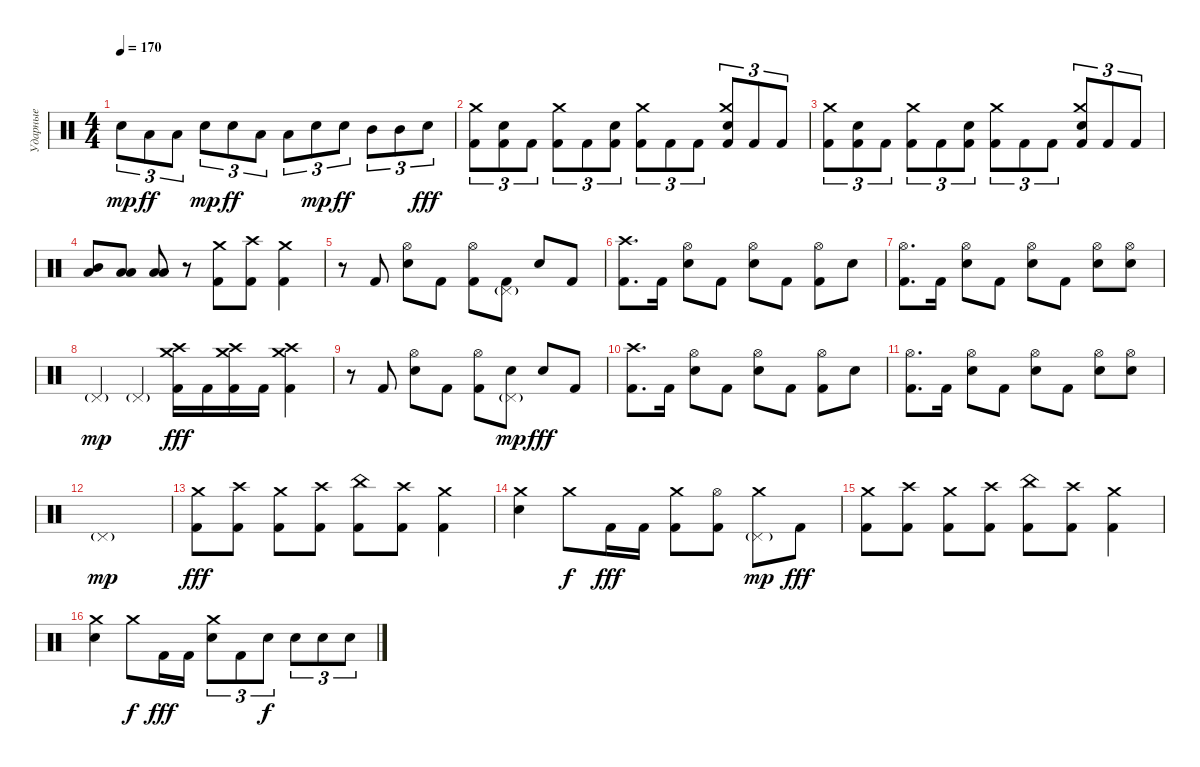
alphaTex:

\track ("Ударные" "Ударные") {instrument percussion}
\staff {score}
\articulation defaults
\ts (4 4)
\tempo 170
\clef neutral
\ks c "Electric Snare (hit)".8{tu (3 2) dy mp} "Low Floor Tom (hit)".8{tu (3 2) dy ff} "Low Floor Tom (hit)".8{tu (3 2)} "Electric Snare (hit)".8{tu (3 2) dy mp} "Electric Snare (hit)".8{tu (3 2) dy ff} "Low Tom (hit)".8{tu (3 2)} "Low Tom (hit)".8{tu (3 2)} "Electric Snare (hit)".8{tu (3 2) dy mp} "Electric Snare (hit)".8{tu (3 2) dy ff} "Mid Tom (hit)".8{tu (3 2)} "Mid Tom (hit)".8{tu (3 2)} "Electric Snare (hit)".8{tu (3 2) dy fff}
|
("Crash medium (hit)" "Kick (hit) 2").8{tu (3 2)} ("Electric Snare (hit)" "Kick (hit) 2").8{tu (3 2)} "Kick (hit) 2".8{tu (3 2)} ("Crash medium (hit)" "Kick (hit) 2").8{tu (3 2)} "Kick (hit) 2".8{tu (3 2)} ("Electric Snare (hit)" "Kick (hit) 2").8{tu (3 2)} ("Crash medium (hit)" "Kick (hit) 2").8{tu (3 2)} "Kick (hit) 2".8{tu (3 2)} "Kick (hit) 2".8{tu (3 2)} ("Crash medium (hit)" "Electric Snare (hit)" "Kick (hit) 2").8{tu (3 2)} "Kick (hit) 2".8{tu (3 2)} "Kick (hit) 2".8{tu (3 2)} |
("Crash medium (hit)" "Kick (hit) 2").8{tu (3 2)} ("Electric Snare (hit)" "Kick (hit) 2").8{tu (3 2)} "Kick (hit) 2".8{tu (3 2)} ("Crash medium (hit)" "Kick (hit) 2").8{tu (3 2)} "Kick (hit) 2".8{tu (3 2)} ("Electric Snare (hit)" "Kick (hit) 2").8{tu (3 2)} ("Crash medium (hit)" "Kick (hit) 2").8{tu (3 2)} "Kick (hit) 2".8{tu (3 2)} "Kick (hit) 2".8{tu (3 2)} ("Crash medium (hit)" "Electric Snare (hit)" "Kick (hit) 2").8{tu (3 2)} "Kick (hit) 2".8{tu (3 2)} "Kick (hit) 2".8{tu (3 2)} |
("Mid Tom (hit)" "Low Floor Tom (hit)").8 ("Low Tom (hit)" "Low Floor Tom (hit)").8 ("Low Tom (hit)" "Low Floor Tom (hit)").8 r.8 ("Crash medium (hit)" "Kick (hit) 2").8 ("Crash high (hit)" "Kick (hit) 2").8 ("Crash medium (hit)" "Kick (hit) 2").4 |
r.8 "Kick (hit) 2".8 ("Hi-Hat (open)" "Electric Snare (hit)").8 "Kick (hit) 2".8 ("Hi-Hat (open)" "Kick (hit) 2").8 ("Pedal Hi-Hat (hit)"{g} "Kick (hit) 2").8 "Electric Snare (hit)".8 "Kick (hit) 2".8 |
("Crash high (hit)" "Kick (hit) 2").8{d} "Kick (hit) 2".16 ("Hi-Hat (open)" "Electric Snare (hit)").8 "Kick (hit) 2".8 ("Hi-Hat (open)" "Electric Snare (hit)").8 "Kick (hit) 2".8 ("Hi-Hat (open)" "Kick (hit) 2").8 "Electric Snare (hit)".8 |
("Hi-Hat (open)" "Kick (hit) 2").8{d} "Kick (hit) 2".16 ("Hi-Hat (open)" "Electric Snare (hit)").8 "Kick (hit) 2".8 ("Hi-Hat (open)" "Electric Snare (hit)").8 "Kick (hit) 2".8 ("Hi-Hat (open)" "Electric Snare (hit)").8 ("Hi-Hat (open)" "Electric Snare (hit)").8 |
"Pedal Hi-Hat (hit)"{g}.4{dy mp} "Pedal Hi-Hat (hit)"{g}.4 ("Crash high (hit)" "Crash medium (hit)" "Kick (hit) 2").16{dy fff} "Kick (hit) 2".16 ("Crash medium (hit)" "Crash high (hit)" "Kick (hit) 2").16 "Kick (hit) 2".16 ("Crash high (hit)" "Crash medium (hit)" "Kick (hit) 2").4 |
r.8 "Kick (hit) 2".8 ("Hi-Hat (open)" "Electric Snare (hit)").8 "Kick (hit) 2".8 ("Hi-Hat (open)" "Kick (hit) 2").8 ("Pedal Hi-Hat (hit)"{g} "Electric Snare (hit)").8{dy mp} "Electric Snare (hit)".8{dy fff} "Kick (hit) 2".8 |
("Crash high (hit)" "Kick (hit) 2").8{d} "Kick (hit) 2".16 ("Hi-Hat (open)" "Electric Snare (hit)").8 "Kick (hit) 2".8 ("Hi-Hat (open)" "Electric Snare (hit)").8 "Kick (hit) 2".8 ("Hi-Hat (open)" "Kick (hit) 2").8 "Electric Snare (hit)".8 |
("Hi-Hat (open)" "Kick (hit) 2").8{d} "Kick (hit) 2".16 ("Hi-Hat (open)" "Electric Snare (hit)").8 "Kick (hit) 2".8 ("Hi-Hat (open)" "Electric Snare (hit)").8 "Kick (hit) 2".8 ("Hi-Hat (open)" "Electric Snare (hit)").8 ("Hi-Hat (open)" "Electric Snare (hit)").8 |
"Pedal Hi-Hat (hit)"{g}.1{dy mp} |
("Crash medium (hit)" "Kick (hit) 2").8{dy fff} ("Crash high (hit)" "Kick (hit) 2").8 ("Crash medium (hit)" "Kick (hit) 2").8 ("Crash high (hit)" "Kick (hit) 2").8 ("China (hit)" "Kick (hit) 2").8 ("Crash high (hit)" "Kick (hit) 2").8 ("Crash medium (hit)" "Kick (hit) 2").4 |
("Crash medium (hit)" "Electric Snare (hit)").4 "Crash medium (hit)".8{dy f} "Kick (hit) 2".16{dy fff} "Kick (hit) 2".16 ("Crash medium (hit)" "Kick (hit) 2").8 ("Hi-Hat (open)" "Kick (hit) 2").8 ("Crash medium (hit)" "Pedal Hi-Hat (hit)"{g}).8{dy mp} "Kick (hit) 2".8{dy fff} |
("Crash medium (hit)" "Kick (hit) 2").8 ("Crash high (hit)" "Kick (hit) 2").8 ("Crash medium (hit)" "Kick (hit) 2").8 ("Crash high (hit)" "Kick (hit) 2").8 ("China (hit)" "Kick (hit) 2").8 ("Crash high (hit)" "Kick (hit) 2").8 ("Crash medium (hit)" "Kick (hit) 2").4 |
("Crash medium (hit)" "Electric Snare (hit)").4 "Crash medium (hit)".8{dy f} "Kick (hit) 2".16{dy fff} "Kick (hit) 2".16 ("Crash medium (hit)" "Electric Snare (hit)").8{tu (3 2)} "Kick (hit) 2".8{tu (3 2)} "Electric Snare (hit)".8{tu (3 2) dy f} "Electric Snare (hit)".8{tu (3 2)} "Electric Snare (hit)".8{tu (3 2)} "Electric Snare (hit)".8{tu (3 2)}
